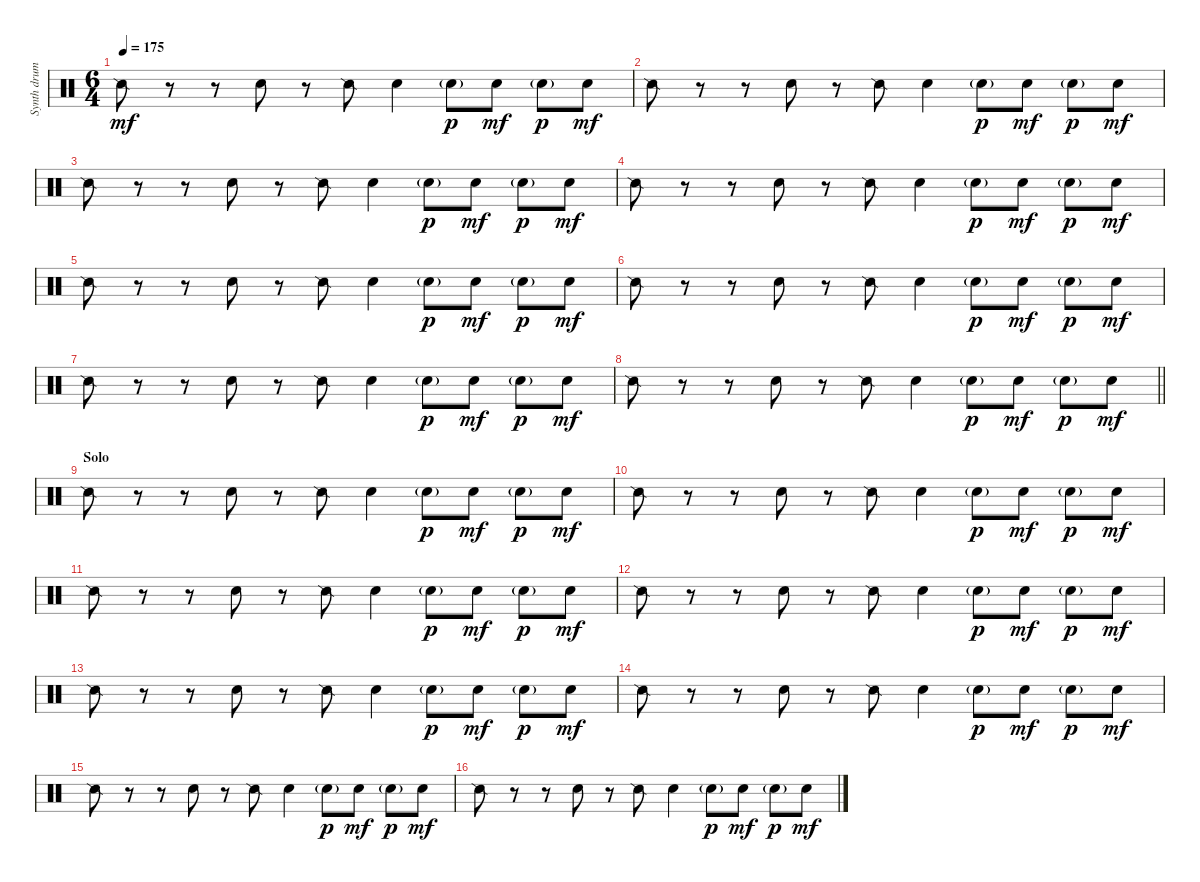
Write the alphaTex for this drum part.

\track ("Synth drums" "Synth drum") {instrument percussion}
\staff {score}
\articulation defaults
\ts (6 4)
\tempo 175
\clef neutral
\ks c "Snare (side stick) 2".8{dy mf}
r.8 r.8 "Hand Clap (hit)".8 r.8 "Snare (side stick) 2".8 "Hand Clap (hit)".4 "Hand Clap (hit)"{g}.8{dy p} "Hand Clap (hit)".8{dy mf} "Hand Clap (hit)"{g}.8{dy p} "Hand Clap (hit)".8{dy mf} |
"Snare (side stick) 2".8 r.8 r.8 "Hand Clap (hit)".8 r.8 "Snare (side stick) 2".8 "Hand Clap (hit)".4 "Hand Clap (hit)"{g}.8{dy p} "Hand Clap (hit)".8{dy mf} "Hand Clap (hit)"{g}.8{dy p} "Hand Clap (hit)".8{dy mf} |
"Snare (side stick) 2".8 r.8 r.8 "Hand Clap (hit)".8 r.8 "Snare (side stick) 2".8 "Hand Clap (hit)".4 "Hand Clap (hit)"{g}.8{dy p} "Hand Clap (hit)".8{dy mf} "Hand Clap (hit)"{g}.8{dy p} "Hand Clap (hit)".8{dy mf} |
"Snare (side stick) 2".8 r.8 r.8 "Hand Clap (hit)".8 r.8 "Snare (side stick) 2".8 "Hand Clap (hit)".4 "Hand Clap (hit)"{g}.8{dy p} "Hand Clap (hit)".8{dy mf} "Hand Clap (hit)"{g}.8{dy p} "Hand Clap (hit)".8{dy mf} |
"Snare (side stick) 2".8 r.8 r.8 "Hand Clap (hit)".8 r.8 "Snare (side stick) 2".8 "Hand Clap (hit)".4 "Hand Clap (hit)"{g}.8{dy p} "Hand Clap (hit)".8{dy mf} "Hand Clap (hit)"{g}.8{dy p} "Hand Clap (hit)".8{dy mf} |
"Snare (side stick) 2".8 r.8 r.8 "Hand Clap (hit)".8 r.8 "Snare (side stick) 2".8 "Hand Clap (hit)".4 "Hand Clap (hit)"{g}.8{dy p} "Hand Clap (hit)".8{dy mf} "Hand Clap (hit)"{g}.8{dy p} "Hand Clap (hit)".8{dy mf} |
"Snare (side stick) 2".8 r.8 r.8 "Hand Clap (hit)".8 r.8 "Snare (side stick) 2".8 "Hand Clap (hit)".4 "Hand Clap (hit)"{g}.8{dy p} "Hand Clap (hit)".8{dy mf} "Hand Clap (hit)"{g}.8{dy p} "Hand Clap (hit)".8{dy mf} |
\barLineRight lightlight "Snare (side stick) 2".8
r.8 r.8 "Hand Clap (hit)".8 r.8 "Snare (side stick) 2".8 "Hand Clap (hit)".4 "Hand Clap (hit)"{g}.8{dy p} "Hand Clap (hit)".8{dy mf} "Hand Clap (hit)"{g}.8{dy p} "Hand Clap (hit)".8{dy mf} |
\section ("" "Solo")
"Snare (side stick) 2".8 r.8 r.8 "Hand Clap (hit)".8 r.8 "Snare (side stick) 2".8 "Hand Clap (hit)".4 "Hand Clap (hit)"{g}.8{dy p} "Hand Clap (hit)".8{dy mf} "Hand Clap (hit)"{g}.8{dy p} "Hand Clap (hit)".8{dy mf} |
"Snare (side stick) 2".8 r.8 r.8 "Hand Clap (hit)".8 r.8 "Snare (side stick) 2".8 "Hand Clap (hit)".4 "Hand Clap (hit)"{g}.8{dy p} "Hand Clap (hit)".8{dy mf} "Hand Clap (hit)"{g}.8{dy p} "Hand Clap (hit)".8{dy mf} |
"Snare (side stick) 2".8 r.8 r.8 "Hand Clap (hit)".8 r.8 "Snare (side stick) 2".8 "Hand Clap (hit)".4 "Hand Clap (hit)"{g}.8{dy p} "Hand Clap (hit)".8{dy mf} "Hand Clap (hit)"{g}.8{dy p} "Hand Clap (hit)".8{dy mf} |
"Snare (side stick) 2".8 r.8 r.8 "Hand Clap (hit)".8 r.8 "Snare (side stick) 2".8 "Hand Clap (hit)".4 "Hand Clap (hit)"{g}.8{dy p} "Hand Clap (hit)".8{dy mf} "Hand Clap (hit)"{g}.8{dy p} "Hand Clap (hit)".8{dy mf} |
"Snare (side stick) 2".8 r.8 r.8 "Hand Clap (hit)".8 r.8 "Snare (side stick) 2".8 "Hand Clap (hit)".4 "Hand Clap (hit)"{g}.8{dy p} "Hand Clap (hit)".8{dy mf} "Hand Clap (hit)"{g}.8{dy p} "Hand Clap (hit)".8{dy mf} |
"Snare (side stick) 2".8 r.8 r.8 "Hand Clap (hit)".8 r.8 "Snare (side stick) 2".8 "Hand Clap (hit)".4 "Hand Clap (hit)"{g}.8{dy p} "Hand Clap (hit)".8{dy mf} "Hand Clap (hit)"{g}.8{dy p} "Hand Clap (hit)".8{dy mf} |
"Snare (side stick) 2".8 r.8 r.8 "Hand Clap (hit)".8 r.8 "Snare (side stick) 2".8 "Hand Clap (hit)".4 "Hand Clap (hit)"{g}.8{dy p} "Hand Clap (hit)".8{dy mf} "Hand Clap (hit)"{g}.8{dy p} "Hand Clap (hit)".8{dy mf} |
"Snare (side stick) 2".8 r.8 r.8 "Hand Clap (hit)".8 r.8 "Snare (side stick) 2".8 "Hand Clap (hit)".4 "Hand Clap (hit)"{g}.8{dy p} "Hand Clap (hit)".8{dy mf} "Hand Clap (hit)"{g}.8{dy p} "Hand Clap (hit)".8{dy mf}
